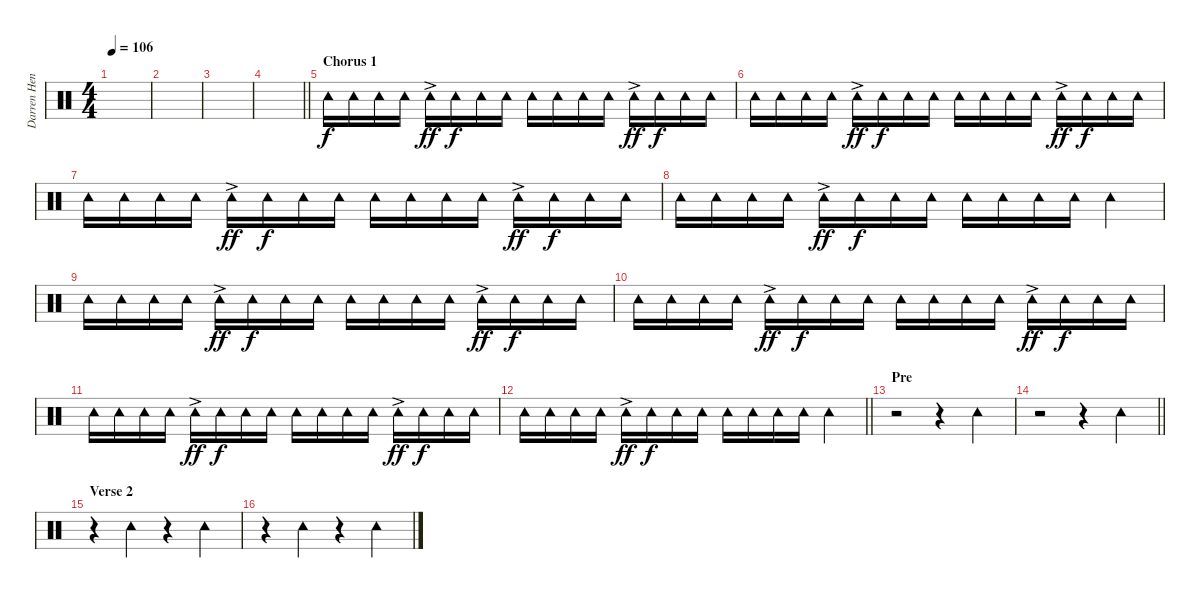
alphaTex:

\track ("Darren Henley [Percussion]" "Darren Hen") {instrument percussion}
\staff {score}
\articulation defaults
\ts (4 4)
\tempo 106
\clef neutral
\ks c
|
|
|
\barLineRight lightlight
|
\section ("" "Chorus 1")
"Tambourine (hit)".16 "Tambourine (hit)".16 "Tambourine (hit)".16 "Tambourine (hit)".16 "Tambourine (hit)"{ac}.16{dy ff} "Tambourine (hit)".16{dy f} "Tambourine (hit)".16 "Tambourine (hit)".16 "Tambourine (hit)".16 "Tambourine (hit)".16 "Tambourine (hit)".16 "Tambourine (hit)".16 "Tambourine (hit)"{ac}.16{dy ff} "Tambourine (hit)".16{dy f} "Tambourine (hit)".16 "Tambourine (hit)".16 |
"Tambourine (hit)".16 "Tambourine (hit)".16 "Tambourine (hit)".16 "Tambourine (hit)".16 "Tambourine (hit)"{ac}.16{dy ff} "Tambourine (hit)".16{dy f} "Tambourine (hit)".16 "Tambourine (hit)".16 "Tambourine (hit)".16 "Tambourine (hit)".16 "Tambourine (hit)".16 "Tambourine (hit)".16 "Tambourine (hit)"{ac}.16{dy ff} "Tambourine (hit)".16{dy f} "Tambourine (hit)".16 "Tambourine (hit)".16 |
"Tambourine (hit)".16 "Tambourine (hit)".16 "Tambourine (hit)".16 "Tambourine (hit)".16 "Tambourine (hit)"{ac}.16{dy ff} "Tambourine (hit)".16{dy f} "Tambourine (hit)".16 "Tambourine (hit)".16 "Tambourine (hit)".16 "Tambourine (hit)".16 "Tambourine (hit)".16 "Tambourine (hit)".16 "Tambourine (hit)"{ac}.16{dy ff} "Tambourine (hit)".16{dy f} "Tambourine (hit)".16 "Tambourine (hit)".16 |
"Tambourine (hit)".16 "Tambourine (hit)".16 "Tambourine (hit)".16 "Tambourine (hit)".16 "Tambourine (hit)"{ac}.16{dy ff} "Tambourine (hit)".16{dy f} "Tambourine (hit)".16 "Tambourine (hit)".16 "Tambourine (hit)".16 "Tambourine (hit)".16 "Tambourine (hit)".16 "Tambourine (hit)".16 "Tambourine (hit)".4 |
"Tambourine (hit)".16 "Tambourine (hit)".16 "Tambourine (hit)".16 "Tambourine (hit)".16 "Tambourine (hit)"{ac}.16{dy ff} "Tambourine (hit)".16{dy f} "Tambourine (hit)".16 "Tambourine (hit)".16 "Tambourine (hit)".16 "Tambourine (hit)".16 "Tambourine (hit)".16 "Tambourine (hit)".16 "Tambourine (hit)"{ac}.16{dy ff} "Tambourine (hit)".16{dy f} "Tambourine (hit)".16 "Tambourine (hit)".16 |
"Tambourine (hit)".16 "Tambourine (hit)".16 "Tambourine (hit)".16 "Tambourine (hit)".16 "Tambourine (hit)"{ac}.16{dy ff} "Tambourine (hit)".16{dy f} "Tambourine (hit)".16 "Tambourine (hit)".16 "Tambourine (hit)".16 "Tambourine (hit)".16 "Tambourine (hit)".16 "Tambourine (hit)".16 "Tambourine (hit)"{ac}.16{dy ff} "Tambourine (hit)".16{dy f} "Tambourine (hit)".16 "Tambourine (hit)".16 |
"Tambourine (hit)".16 "Tambourine (hit)".16 "Tambourine (hit)".16 "Tambourine (hit)".16 "Tambourine (hit)"{ac}.16{dy ff} "Tambourine (hit)".16{dy f} "Tambourine (hit)".16 "Tambourine (hit)".16 "Tambourine (hit)".16 "Tambourine (hit)".16 "Tambourine (hit)".16 "Tambourine (hit)".16 "Tambourine (hit)"{ac}.16{dy ff} "Tambourine (hit)".16{dy f} "Tambourine (hit)".16 "Tambourine (hit)".16 |
\barLineRight lightlight "Tambourine (hit)".16 "Tambourine (hit)".16 "Tambourine (hit)".16 "Tambourine (hit)".16 "Tambourine (hit)"{ac}.16{dy ff} "Tambourine (hit)".16{dy f} "Tambourine (hit)".16 "Tambourine (hit)".16 "Tambourine (hit)".16 "Tambourine (hit)".16 "Tambourine (hit)".16 "Tambourine (hit)".16 "Tambourine (hit)".4
|
\section ("" "Pre")
r.2 r.4 "Tambourine (hit)".4 |
\barLineRight lightlight
r.2 r.4 "Tambourine (hit)".4 |
\section ("" "Verse 2")
r.4 "Tambourine (hit)".4 r.4 "Tambourine (hit)".4 |
r.4 "Tambourine (hit)".4 r.4 "Tambourine (hit)".4
